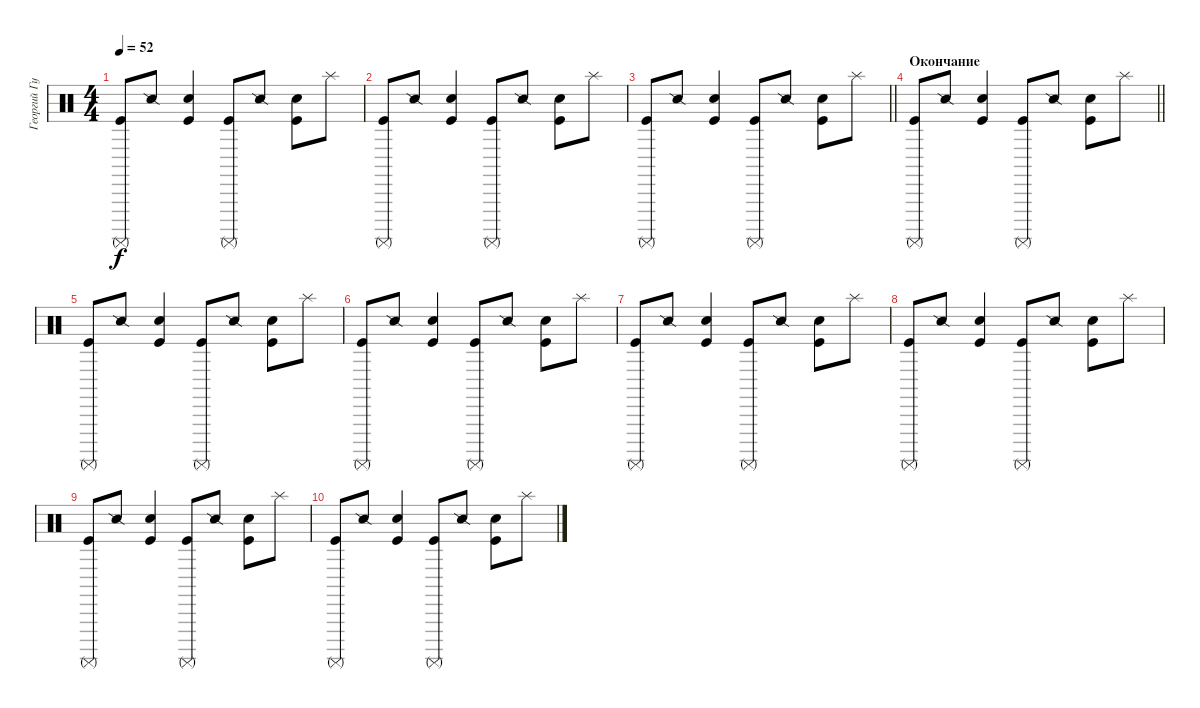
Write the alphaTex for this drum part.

\track ("Георгий Гурьянов" "Георгий Гу") {instrument percussion}
\staff {score}
\articulation defaults
\ts (4 4)
\tempo 52
\clef neutral
\ks c
("Kick (hit)" "Surdo (mute)").8{dy f} "Snare (side stick) 2".8 ("Snare (hit) 2" "Kick (hit)").4 ("Kick (hit)" "Surdo (mute)").8 "Snare (side stick) 2".8 ("Snare (hit) 2" "Kick (hit)").8 "Splash (hit)".8 |
("Kick (hit)" "Surdo (mute)").8 "Snare (side stick) 2".8 ("Snare (hit) 2" "Kick (hit)").4 ("Kick (hit)" "Surdo (mute)").8 "Snare (side stick) 2".8 ("Snare (hit) 2" "Kick (hit)").8 "Splash (hit)".8 |
\barLineRight lightlight
("Kick (hit)" "Surdo (mute)").8 "Snare (side stick) 2".8 ("Snare (hit) 2" "Kick (hit)").4 ("Kick (hit)" "Surdo (mute)").8 "Snare (side stick) 2".8 ("Snare (hit) 2" "Kick (hit)").8 "Splash (hit)".8 |
\section ("" "Окончание")
\barLineRight lightlight
("Kick (hit)" "Surdo (mute)").8 "Snare (side stick) 2".8 ("Snare (hit) 2" "Kick (hit)").4 ("Kick (hit)" "Surdo (mute)").8 "Snare (side stick) 2".8 ("Snare (hit) 2" "Kick (hit)").8 "Splash (hit)".8 |
("Kick (hit)" "Surdo (mute)").8 "Snare (side stick) 2".8 ("Snare (hit) 2" "Kick (hit)").4 ("Kick (hit)" "Surdo (mute)").8 "Snare (side stick) 2".8 ("Snare (hit) 2" "Kick (hit)").8 "Splash (hit)".8 |
("Kick (hit)" "Surdo (mute)").8 "Snare (side stick) 2".8 ("Snare (hit) 2" "Kick (hit)").4 ("Kick (hit)" "Surdo (mute)").8 "Snare (side stick) 2".8 ("Snare (hit) 2" "Kick (hit)").8 "Splash (hit)".8 |
("Kick (hit)" "Surdo (mute)").8 "Snare (side stick) 2".8 ("Snare (hit) 2" "Kick (hit)").4 ("Kick (hit)" "Surdo (mute)").8 "Snare (side stick) 2".8 ("Snare (hit) 2" "Kick (hit)").8 "Splash (hit)".8 |
("Kick (hit)" "Surdo (mute)").8 "Snare (side stick) 2".8 ("Snare (hit) 2" "Kick (hit)").4 ("Kick (hit)" "Surdo (mute)").8 "Snare (side stick) 2".8 ("Snare (hit) 2" "Kick (hit)").8 "Splash (hit)".8 |
("Kick (hit)" "Surdo (mute)").8 "Snare (side stick) 2".8 ("Snare (hit) 2" "Kick (hit)").4 ("Kick (hit)" "Surdo (mute)").8 "Snare (side stick) 2".8 ("Snare (hit) 2" "Kick (hit)").8 "Splash (hit)".8 |
("Kick (hit)" "Surdo (mute)").8 "Snare (side stick) 2".8 ("Snare (hit) 2" "Kick (hit)").4 ("Kick (hit)" "Surdo (mute)").8 "Snare (side stick) 2".8 ("Snare (hit) 2" "Kick (hit)").8 "Splash (hit)".8
